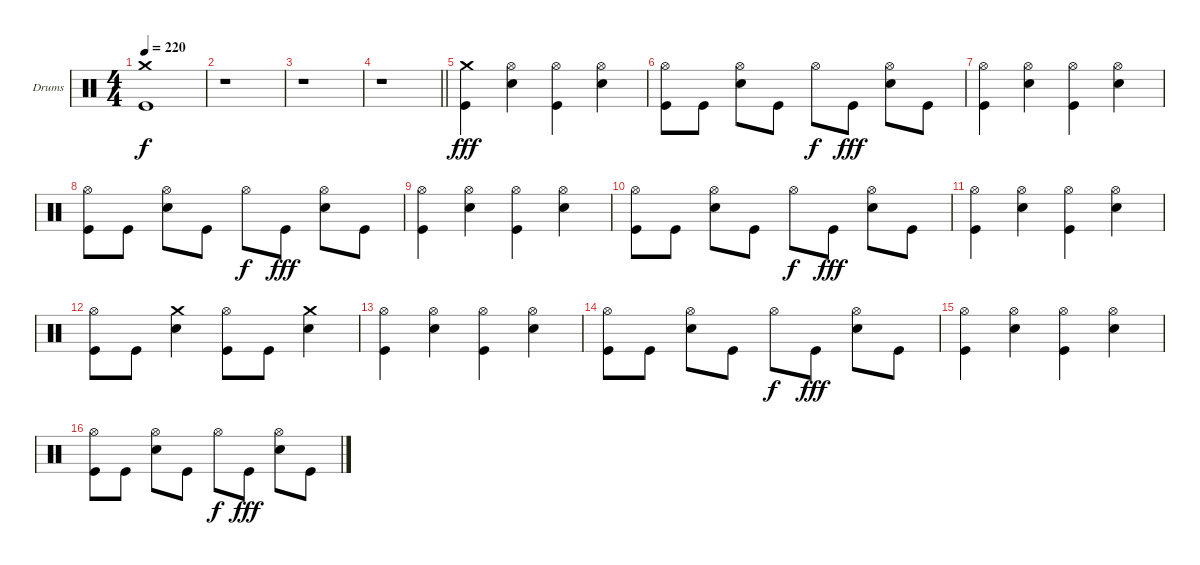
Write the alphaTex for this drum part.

\bracketExtendMode groupsimilarinstruments
\firstSystemTrackNameOrientation horizontal
\otherSystemsTrackNameOrientation horizontal
\track ("Stefan Schwarzmann" "Drums") {instrument percussion}
\staff {score}
\articulation defaults
\ts (4 4)
\tempo 220
\clef neutral
\ks c
("Kick (hit)" "Crash medium (hit)").1{dy f} |
r.1 |
r.1 |
\barLineRight lightlight
r.1 |
("Kick (hit)" "Crash medium (hit)").4{dy fff} ("Snare (hit) 2" "Hi-Hat (open)").4 ("Kick (hit)" "Hi-Hat (open)").4 ("Snare (hit) 2" "Hi-Hat (open)").4 |
("Kick (hit)" "Hi-Hat (open)").8 "Kick (hit)".8 ("Snare (hit) 2" "Hi-Hat (open)").8 "Kick (hit)".8 "Hi-Hat (open)".8{dy f} "Kick (hit)".8{dy fff} ("Snare (hit) 2" "Hi-Hat (open)").8 "Kick (hit)".8 |
("Kick (hit)" "Hi-Hat (open)").4 ("Snare (hit) 2" "Hi-Hat (open)").4 ("Kick (hit)" "Hi-Hat (open)").4 ("Snare (hit) 2" "Hi-Hat (open)").4 |
("Kick (hit)" "Hi-Hat (open)").8 "Kick (hit)".8 ("Snare (hit) 2" "Hi-Hat (open)").8 "Kick (hit)".8 "Hi-Hat (open)".8{dy f} "Kick (hit)".8{dy fff} ("Snare (hit) 2" "Hi-Hat (open)").8 "Kick (hit)".8 |
("Kick (hit)" "Hi-Hat (open)").4 ("Snare (hit) 2" "Hi-Hat (open)").4 ("Kick (hit)" "Hi-Hat (open)").4 ("Snare (hit) 2" "Hi-Hat (open)").4 |
("Kick (hit)" "Hi-Hat (open)").8 "Kick (hit)".8 ("Snare (hit) 2" "Hi-Hat (open)").8 "Kick (hit)".8 "Hi-Hat (open)".8{dy f} "Kick (hit)".8{dy fff} ("Snare (hit) 2" "Hi-Hat (open)").8 "Kick (hit)".8 |
("Kick (hit)" "Hi-Hat (open)").4 ("Snare (hit) 2" "Hi-Hat (open)").4 ("Kick (hit)" "Hi-Hat (open)").4 ("Snare (hit) 2" "Hi-Hat (open)").4 |
("Kick (hit)" "Hi-Hat (open)").8 "Kick (hit)".8 ("Snare (hit) 2" "Crash medium (hit)").4 ("Kick (hit)" "Hi-Hat (open)").8 "Kick (hit)".8 ("Snare (hit) 2" "Crash medium (hit)").4 |
("Kick (hit)" "Hi-Hat (open)").4 ("Snare (hit) 2" "Hi-Hat (open)").4 ("Kick (hit)" "Hi-Hat (open)").4 ("Snare (hit) 2" "Hi-Hat (open)").4 |
("Kick (hit)" "Hi-Hat (open)").8 "Kick (hit)".8 ("Snare (hit) 2" "Hi-Hat (open)").8 "Kick (hit)".8 "Hi-Hat (open)".8{dy f} "Kick (hit)".8{dy fff} ("Snare (hit) 2" "Hi-Hat (open)").8 "Kick (hit)".8 |
("Kick (hit)" "Hi-Hat (open)").4 ("Snare (hit) 2" "Hi-Hat (open)").4 ("Kick (hit)" "Hi-Hat (open)").4 ("Snare (hit) 2" "Hi-Hat (open)").4 |
("Kick (hit)" "Hi-Hat (open)").8 "Kick (hit)".8 ("Snare (hit) 2" "Hi-Hat (open)").8 "Kick (hit)".8 "Hi-Hat (open)".8{dy f} "Kick (hit)".8{dy fff} ("Snare (hit) 2" "Hi-Hat (open)").8 "Kick (hit)".8
